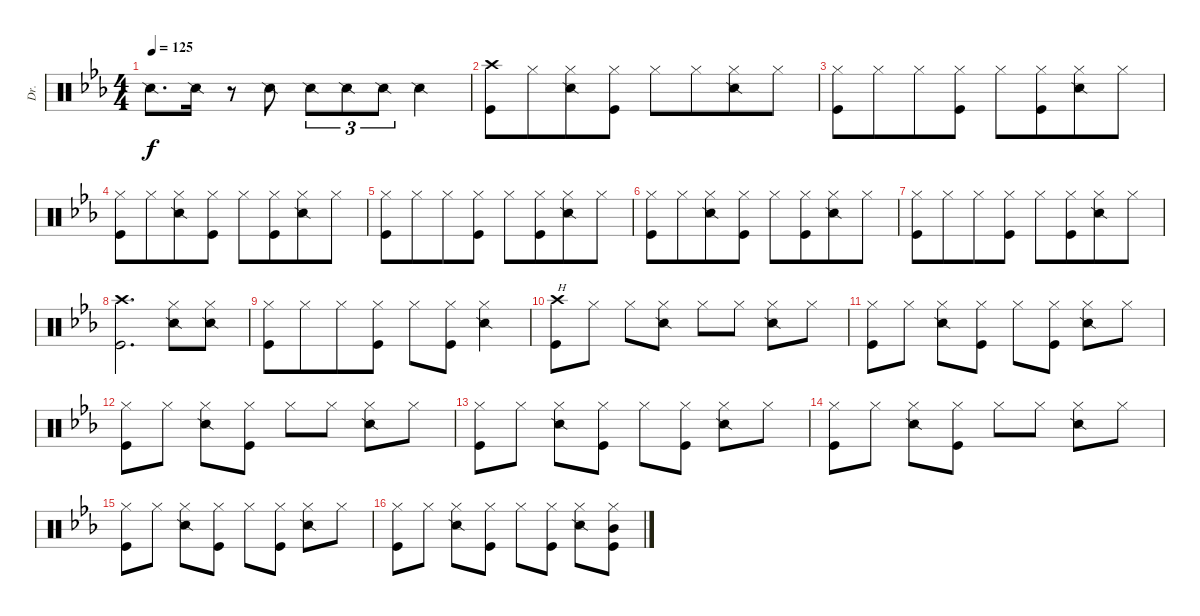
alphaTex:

\track ("Dr." "Dr.") {instrument percussion}
\staff {score}
\articulation defaults
\ts (4 4)
\tempo 125
\clef neutral
\ks eb "Snare (side stick) 2".8{d dy f} "Snare (side stick) 2".16
r.8 "Snare (side stick) 2".8 "Snare (side stick) 2".8{tu (3 2)} "Snare (side stick) 2".8{tu (3 2)} "Snare (side stick) 2".8{tu (3 2)} "Snare (side stick) 2".4 |
("Crash high (hit)" "Kick (hit)").8 "Hi-Hat (closed)".8{beam merge} ("Hi-Hat (closed)" "Snare (side stick) 2").8 ("Hi-Hat (closed)" "Kick (hit)").8 "Hi-Hat (closed)".8 "Hi-Hat (closed)".8{beam merge} ("Hi-Hat (closed)" "Snare (side stick) 2").8 "Hi-Hat (closed)".8 |
("Hi-Hat (closed)" "Kick (hit)").8 "Hi-Hat (closed)".8{beam merge} "Hi-Hat (closed)".8 ("Hi-Hat (closed)" "Kick (hit)").8 "Hi-Hat (closed)".8 ("Hi-Hat (closed)" "Kick (hit)").8{beam merge} ("Hi-Hat (closed)" "Snare (side stick) 2").8 "Hi-Hat (closed)".8 |
("Hi-Hat (closed)" "Kick (hit)").8 "Hi-Hat (closed)".8{beam merge} ("Hi-Hat (closed)" "Snare (side stick) 2").8 ("Hi-Hat (closed)" "Kick (hit)").8 "Hi-Hat (closed)".8 ("Hi-Hat (closed)" "Kick (hit)").8{beam merge} ("Hi-Hat (closed)" "Snare (side stick) 2").8 "Hi-Hat (closed)".8 |
("Hi-Hat (closed)" "Kick (hit)").8 "Hi-Hat (closed)".8{beam merge} "Hi-Hat (closed)".8 ("Hi-Hat (closed)" "Kick (hit)").8 "Hi-Hat (closed)".8 ("Hi-Hat (closed)" "Kick (hit)").8{beam merge} ("Hi-Hat (closed)" "Snare (side stick) 2").8 "Hi-Hat (closed)".8 |
("Hi-Hat (closed)" "Kick (hit)").8 "Hi-Hat (closed)".8{beam merge} ("Hi-Hat (closed)" "Snare (side stick) 2").8 ("Hi-Hat (closed)" "Kick (hit)").8 "Hi-Hat (closed)".8 ("Hi-Hat (closed)" "Kick (hit)").8{beam merge} ("Hi-Hat (closed)" "Snare (side stick) 2").8 "Hi-Hat (closed)".8 |
("Hi-Hat (closed)" "Kick (hit)").8 "Hi-Hat (closed)".8{beam merge} "Hi-Hat (closed)".8 ("Hi-Hat (closed)" "Kick (hit)").8 "Hi-Hat (closed)".8 ("Hi-Hat (closed)" "Kick (hit)").8{beam merge} ("Hi-Hat (closed)" "Snare (side stick) 2").8 "Hi-Hat (closed)".8 |
("Crash high (hit)" "Kick (hit)").2{d} ("Hi-Hat (closed)" "Snare (side stick) 2").8 ("Hi-Hat (closed)" "Snare (side stick) 2").8 |
("Hi-Hat (closed)" "Kick (hit)").8 "Hi-Hat (closed)".8{beam merge} "Hi-Hat (closed)".8 ("Hi-Hat (closed)" "Kick (hit)").8 "Hi-Hat (closed)".8 ("Hi-Hat (closed)" "Kick (hit)").8 ("Hi-Hat (closed)" "Snare (side stick) 2").4 |
("Crash high (hit)" "Kick (hit)").8{txt "H"} "Hi-Hat (closed)".8 "Hi-Hat (closed)".8 ("Hi-Hat (closed)" "Snare (side stick) 2").8 "Hi-Hat (closed)".8 "Hi-Hat (closed)".8 ("Hi-Hat (closed)" "Snare (side stick) 2").8 "Hi-Hat (closed)".8 |
("Hi-Hat (closed)" "Kick (hit)").8 "Hi-Hat (closed)".8 ("Hi-Hat (closed)" "Snare (side stick) 2").8 ("Hi-Hat (closed)" "Kick (hit)").8 "Hi-Hat (closed)".8 ("Hi-Hat (closed)" "Kick (hit)").8 ("Hi-Hat (closed)" "Snare (side stick) 2").8 "Hi-Hat (closed)".8 |
("Hi-Hat (closed)" "Kick (hit)").8 "Hi-Hat (closed)".8 ("Hi-Hat (closed)" "Snare (side stick) 2").8 ("Hi-Hat (closed)" "Kick (hit)").8 "Hi-Hat (closed)".8 "Hi-Hat (closed)".8 ("Hi-Hat (closed)" "Snare (side stick) 2").8 "Hi-Hat (closed)".8 |
("Hi-Hat (closed)" "Kick (hit)").8 "Hi-Hat (closed)".8 ("Hi-Hat (closed)" "Snare (side stick) 2").8 ("Hi-Hat (closed)" "Kick (hit)").8 "Hi-Hat (closed)".8 ("Hi-Hat (closed)" "Kick (hit)").8 ("Hi-Hat (closed)" "Snare (side stick) 2").8 "Hi-Hat (closed)".8 |
("Hi-Hat (closed)" "Kick (hit)").8 "Hi-Hat (closed)".8 ("Hi-Hat (closed)" "Snare (side stick) 2").8 ("Hi-Hat (closed)" "Kick (hit)").8 "Hi-Hat (closed)".8 "Hi-Hat (closed)".8 ("Hi-Hat (closed)" "Snare (side stick) 2").8 "Hi-Hat (closed)".8 |
("Hi-Hat (closed)" "Kick (hit)").8 "Hi-Hat (closed)".8 ("Hi-Hat (closed)" "Snare (side stick) 2").8 ("Hi-Hat (closed)" "Kick (hit)").8 "Hi-Hat (closed)".8 ("Hi-Hat (closed)" "Kick (hit)").8 ("Hi-Hat (closed)" "Snare (side stick) 2").8 "Hi-Hat (closed)".8 |
("Hi-Hat (closed)" "Kick (hit)").8 "Hi-Hat (closed)".8 ("Hi-Hat (closed)" "Snare (side stick) 2").8 ("Hi-Hat (closed)" "Kick (hit)").8 "Hi-Hat (closed)".8 ("Hi-Hat (closed)" "Kick (hit)").8 ("Hi-Hat (closed)" "Snare (side stick) 2").8 ("Hi-Hat (closed)" "Mid Tom (hit)" "Kick (hit)").8
